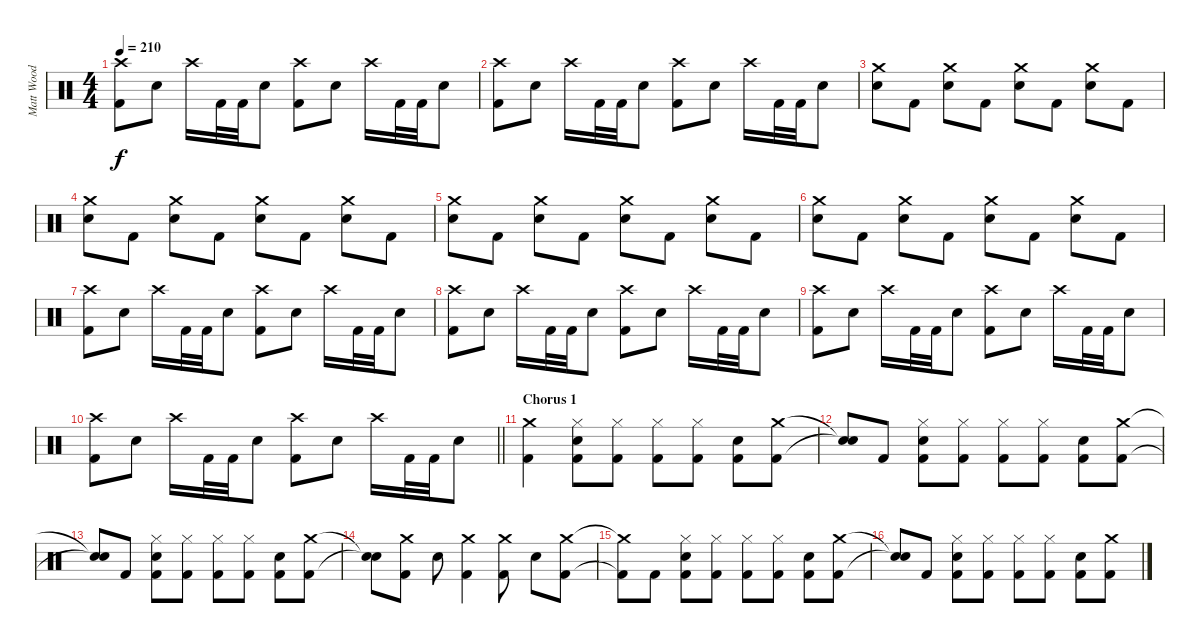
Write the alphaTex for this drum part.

\track ("Matt Wood" "Matt Wood") {instrument percussion}
\staff {score}
\articulation defaults
\ts (4 4)
\tempo 210
\clef neutral
\ks c
("Crash high (hit)" "Kick (hit) 2").8{dy f} "Snare (hit) 2".8 "Crash high (hit)".16 "Kick (hit) 2".32 "Kick (hit) 2".32 "Snare (hit) 2".8 ("Crash high (hit)" "Kick (hit) 2").8 "Snare (hit) 2".8 "Crash high (hit)".16 "Kick (hit) 2".32 "Kick (hit) 2".32 "Snare (hit) 2".8 |
("Crash high (hit)" "Kick (hit) 2").8 "Snare (hit) 2".8 "Crash high (hit)".16 "Kick (hit) 2".32 "Kick (hit) 2".32 "Snare (hit) 2".8 ("Crash high (hit)" "Kick (hit) 2").8 "Snare (hit) 2".8 "Crash high (hit)".16 "Kick (hit) 2".32 "Kick (hit) 2".32 "Snare (hit) 2".8 |
("Crash medium (hit)" "Snare (hit) 2").8 "Kick (hit) 2".8 ("Crash medium (hit)" "Snare (hit) 2").8 "Kick (hit) 2".8 ("Crash medium (hit)" "Snare (hit) 2").8 "Kick (hit) 2".8 ("Crash medium (hit)" "Snare (hit) 2").8 "Kick (hit) 2".8 |
("Crash medium (hit)" "Snare (hit) 2").8 "Kick (hit) 2".8 ("Crash medium (hit)" "Snare (hit) 2").8 "Kick (hit) 2".8 ("Crash medium (hit)" "Snare (hit) 2").8 "Kick (hit) 2".8 ("Crash medium (hit)" "Snare (hit) 2").8 "Kick (hit) 2".8 |
("Crash medium (hit)" "Snare (hit) 2").8 "Kick (hit) 2".8 ("Crash medium (hit)" "Snare (hit) 2").8 "Kick (hit) 2".8 ("Crash medium (hit)" "Snare (hit) 2").8 "Kick (hit) 2".8 ("Crash medium (hit)" "Snare (hit) 2").8 "Kick (hit) 2".8 |
("Crash medium (hit)" "Snare (hit) 2").8 "Kick (hit) 2".8 ("Crash medium (hit)" "Snare (hit) 2").8 "Kick (hit) 2".8 ("Crash medium (hit)" "Snare (hit) 2").8 "Kick (hit) 2".8 ("Crash medium (hit)" "Snare (hit) 2").8 "Kick (hit) 2".8 |
("Crash high (hit)" "Kick (hit) 2").8 "Snare (hit) 2".8 "Crash high (hit)".16 "Kick (hit) 2".32 "Kick (hit) 2".32 "Snare (hit) 2".8 ("Crash high (hit)" "Kick (hit) 2").8 "Snare (hit) 2".8 "Crash high (hit)".16 "Kick (hit) 2".32 "Kick (hit) 2".32 "Snare (hit) 2".8 |
("Crash high (hit)" "Kick (hit) 2").8 "Snare (hit) 2".8 "Crash high (hit)".16 "Kick (hit) 2".32 "Kick (hit) 2".32 "Snare (hit) 2".8 ("Crash high (hit)" "Kick (hit) 2").8 "Snare (hit) 2".8 "Crash high (hit)".16 "Kick (hit) 2".32 "Kick (hit) 2".32 "Snare (hit) 2".8 |
("Crash high (hit)" "Kick (hit) 2").8 "Snare (hit) 2".8 "Crash high (hit)".16 "Kick (hit) 2".32 "Kick (hit) 2".32 "Snare (hit) 2".8 ("Crash high (hit)" "Kick (hit) 2").8 "Snare (hit) 2".8 "Crash high (hit)".16 "Kick (hit) 2".32 "Kick (hit) 2".32 "Snare (hit) 2".8 |
\barLineRight lightlight
("Crash high (hit)" "Kick (hit) 2").8 "Snare (hit) 2".8 "Crash high (hit)".16 "Kick (hit) 2".32 "Kick (hit) 2".32 "Snare (hit) 2".8 ("Crash high (hit)" "Kick (hit) 2").8 "Snare (hit) 2".8 "Crash high (hit)".16 "Kick (hit) 2".32 "Kick (hit) 2".32 "Snare (hit) 2".8 |
\section ("" "Chorus 1")
("Crash medium (hit)" "Kick (hit) 2").4 ("Hi-Hat (closed)" "Snare (hit) 2" "Kick (hit) 2").8 ("Hi-Hat (closed)" "Kick (hit) 2").8 ("Hi-Hat (closed)" "Kick (hit) 2").8 ("Hi-Hat (closed)" "Kick (hit) 2").8 ("Snare (hit) 2" "Kick (hit) 2").8 ("Crash medium (hit)" "Kick (hit) 2").8 |
("Snare (hit)"{t} "Snare (hit)"{t}).8 "Kick (hit) 2".8 ("Hi-Hat (closed)" "Snare (hit) 2" "Kick (hit) 2").8 ("Hi-Hat (closed)" "Kick (hit) 2").8 ("Hi-Hat (closed)" "Kick (hit) 2").8 ("Hi-Hat (closed)" "Kick (hit) 2").8 ("Snare (hit) 2" "Kick (hit) 2").8 ("Crash medium (hit)" "Kick (hit) 2").8 |
("Snare (hit)"{t} "Snare (hit)"{t}).8 "Kick (hit) 2".8 ("Hi-Hat (closed)" "Snare (hit) 2" "Kick (hit) 2").8 ("Hi-Hat (closed)" "Kick (hit) 2").8 ("Hi-Hat (closed)" "Kick (hit) 2").8 ("Hi-Hat (closed)" "Kick (hit) 2").8 ("Snare (hit) 2" "Kick (hit) 2").8 ("Crash medium (hit)" "Kick (hit) 2").8 |
("Snare (hit)"{t} "Snare (hit)"{t}).8 ("Crash medium (hit)" "Kick (hit) 2").8 "Snare (hit) 2".8 ("Crash medium (hit)" "Kick (hit) 2").4 ("Crash medium (hit)" "Kick (hit) 2").8 "Snare (hit) 2".8 ("Crash medium (hit)" "Kick (hit) 2").8 |
("Crash medium (hit)"{t} "Kick (hit) 2"{t}).8 "Kick (hit) 2".8 ("Hi-Hat (closed)" "Snare (hit) 2" "Kick (hit) 2").8 ("Hi-Hat (closed)" "Kick (hit) 2").8 ("Hi-Hat (closed)" "Kick (hit) 2").8 ("Hi-Hat (closed)" "Kick (hit) 2").8 ("Snare (hit) 2" "Kick (hit) 2").8 ("Crash medium (hit)" "Kick (hit) 2").8 |
("Snare (hit)"{t} "Snare (hit)"{t}).8 "Kick (hit) 2".8 ("Hi-Hat (closed)" "Snare (hit) 2" "Kick (hit) 2").8 ("Hi-Hat (closed)" "Kick (hit) 2").8 ("Hi-Hat (closed)" "Kick (hit) 2").8 ("Hi-Hat (closed)" "Kick (hit) 2").8 ("Snare (hit) 2" "Kick (hit) 2").8 ("Crash medium (hit)" "Kick (hit) 2").8
